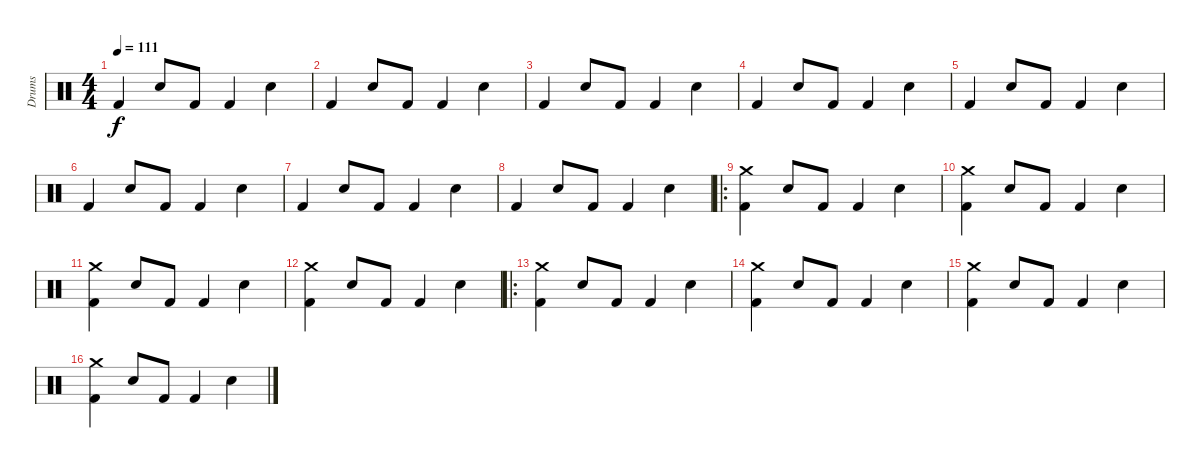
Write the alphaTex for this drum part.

\track ("Drums" "Drums") {instrument percussion}
\staff {score}
\articulation defaults
\ts (4 4)
\tempo 111
\clef neutral
\ks c "Kick (hit) 2".4{dy f} "Snare (hit) 2".8 "Kick (hit) 2".8 "Kick (hit) 2".4 "Snare (hit) 2".4
|
"Kick (hit) 2".4 "Snare (hit) 2".8 "Kick (hit) 2".8 "Kick (hit) 2".4 "Snare (hit) 2".4 |
"Kick (hit) 2".4 "Snare (hit) 2".8 "Kick (hit) 2".8 "Kick (hit) 2".4 "Snare (hit) 2".4 |
"Kick (hit) 2".4 "Snare (hit) 2".8 "Kick (hit) 2".8 "Kick (hit) 2".4 "Snare (hit) 2".4 |
"Kick (hit) 2".4 "Snare (hit) 2".8 "Kick (hit) 2".8 "Kick (hit) 2".4 "Snare (hit) 2".4 |
"Kick (hit) 2".4 "Snare (hit) 2".8 "Kick (hit) 2".8 "Kick (hit) 2".4 "Snare (hit) 2".4 |
"Kick (hit) 2".4 "Snare (hit) 2".8 "Kick (hit) 2".8 "Kick (hit) 2".4 "Snare (hit) 2".4 |
"Kick (hit) 2".4 "Snare (hit) 2".8 "Kick (hit) 2".8 "Kick (hit) 2".4 "Snare (hit) 2".4 |
\ro
("Crash medium (hit)" "Kick (hit) 2").4 "Snare (hit) 2".8 "Kick (hit) 2".8 "Kick (hit) 2".4 "Snare (hit) 2".4 |
("Crash medium (hit)" "Kick (hit) 2").4 "Snare (hit) 2".8 "Kick (hit) 2".8 "Kick (hit) 2".4 "Snare (hit) 2".4 |
("Crash medium (hit)" "Kick (hit) 2").4 "Snare (hit) 2".8 "Kick (hit) 2".8 "Kick (hit) 2".4 "Snare (hit) 2".4 |
("Crash medium (hit)" "Kick (hit) 2").4 "Snare (hit) 2".8 "Kick (hit) 2".8 "Kick (hit) 2".4 "Snare (hit) 2".4 |
\ro
("Crash medium (hit)" "Kick (hit) 2").4 "Snare (hit) 2".8 "Kick (hit) 2".8 "Kick (hit) 2".4 "Snare (hit) 2".4 |
("Crash medium (hit)" "Kick (hit) 2").4 "Snare (hit) 2".8 "Kick (hit) 2".8 "Kick (hit) 2".4 "Snare (hit) 2".4 |
("Crash medium (hit)" "Kick (hit) 2").4 "Snare (hit) 2".8 "Kick (hit) 2".8 "Kick (hit) 2".4 "Snare (hit) 2".4 |
("Crash medium (hit)" "Kick (hit) 2").4 "Snare (hit) 2".8 "Kick (hit) 2".8 "Kick (hit) 2".4 "Snare (hit) 2".4
